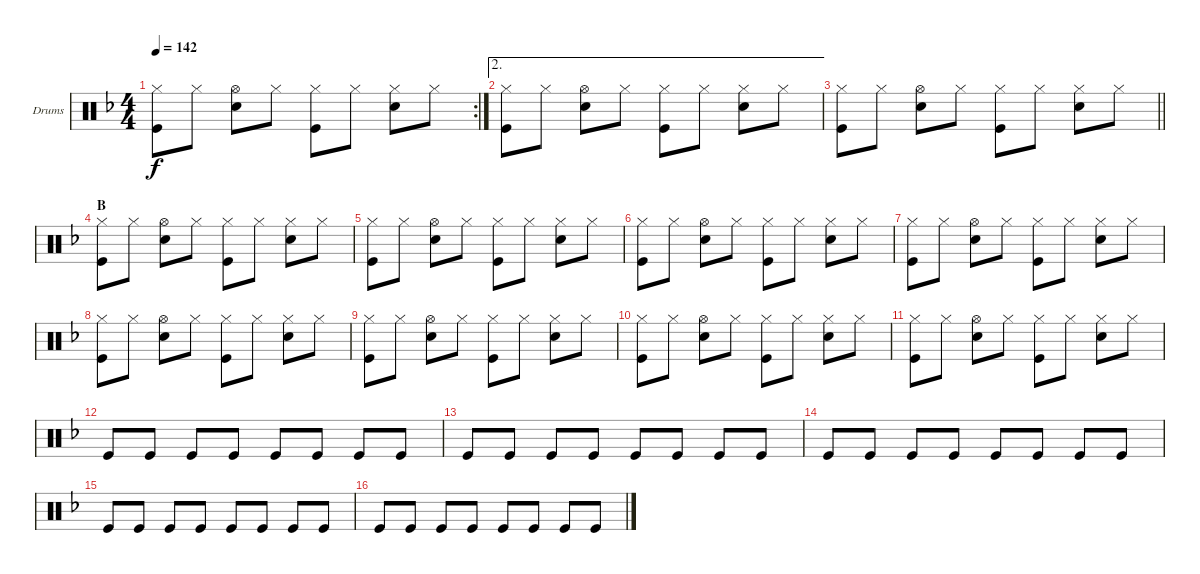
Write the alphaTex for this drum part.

\bracketExtendMode groupsimilarinstruments
\firstSystemTrackNameOrientation horizontal
\otherSystemsTrackNameOrientation horizontal
\track ("Drumkit" "Drums") {instrument percussion}
\staff {score}
\articulation defaults
\rc 2
\ts (4 4)
\tempo 142
\clef neutral
\ks f
("Hi-Hat (closed)" "Kick (hit)").8{dy f} "Hi-Hat (closed)".8 ("Hi-Hat (open)" "Snare (hit) 2").8 "Hi-Hat (closed)".8 ("Hi-Hat (closed)" "Kick (hit)").8 "Hi-Hat (closed)".8 ("Hi-Hat (closed)" "Snare (hit) 2").8 "Hi-Hat (closed)".8 |
\ae 2
("Hi-Hat (closed)" "Kick (hit)").8 "Hi-Hat (closed)".8 ("Hi-Hat (open)" "Snare (hit) 2").8 "Hi-Hat (closed)".8 ("Hi-Hat (closed)" "Kick (hit)").8 "Hi-Hat (closed)".8 ("Hi-Hat (closed)" "Snare (hit) 2").8 "Hi-Hat (closed)".8 |
\barLineRight lightlight
("Hi-Hat (closed)" "Kick (hit)").8 "Hi-Hat (closed)".8 ("Hi-Hat (open)" "Snare (hit) 2").8 "Hi-Hat (closed)".8 ("Hi-Hat (closed)" "Kick (hit)").8 "Hi-Hat (closed)".8 ("Hi-Hat (closed)" "Snare (hit) 2").8 "Hi-Hat (closed)".8 |
\section ("" "B")
("Hi-Hat (closed)" "Kick (hit)").8 "Hi-Hat (closed)".8 ("Hi-Hat (open)" "Snare (hit) 2").8 "Hi-Hat (closed)".8 ("Hi-Hat (closed)" "Kick (hit)").8 "Hi-Hat (closed)".8 ("Hi-Hat (closed)" "Snare (hit) 2").8 "Hi-Hat (closed)".8 |
("Hi-Hat (closed)" "Kick (hit)").8 "Hi-Hat (closed)".8 ("Hi-Hat (open)" "Snare (hit) 2").8 "Hi-Hat (closed)".8 ("Hi-Hat (closed)" "Kick (hit)").8 "Hi-Hat (closed)".8 ("Hi-Hat (closed)" "Snare (hit) 2").8 "Hi-Hat (closed)".8 |
("Hi-Hat (closed)" "Kick (hit)").8 "Hi-Hat (closed)".8 ("Hi-Hat (open)" "Snare (hit) 2").8 "Hi-Hat (closed)".8 ("Hi-Hat (closed)" "Kick (hit)").8 "Hi-Hat (closed)".8 ("Hi-Hat (closed)" "Snare (hit) 2").8 "Hi-Hat (closed)".8 |
("Hi-Hat (closed)" "Kick (hit)").8 "Hi-Hat (closed)".8 ("Hi-Hat (open)" "Snare (hit) 2").8 "Hi-Hat (closed)".8 ("Hi-Hat (closed)" "Kick (hit)").8 "Hi-Hat (closed)".8 ("Hi-Hat (closed)" "Snare (hit) 2").8 "Hi-Hat (closed)".8 |
("Hi-Hat (closed)" "Kick (hit)").8 "Hi-Hat (closed)".8 ("Hi-Hat (open)" "Snare (hit) 2").8 "Hi-Hat (closed)".8 ("Hi-Hat (closed)" "Kick (hit)").8 "Hi-Hat (closed)".8 ("Hi-Hat (closed)" "Snare (hit) 2").8 "Hi-Hat (closed)".8 |
("Hi-Hat (closed)" "Kick (hit)").8 "Hi-Hat (closed)".8 ("Hi-Hat (open)" "Snare (hit) 2").8 "Hi-Hat (closed)".8 ("Hi-Hat (closed)" "Kick (hit)").8 "Hi-Hat (closed)".8 ("Hi-Hat (closed)" "Snare (hit) 2").8 "Hi-Hat (closed)".8 |
("Hi-Hat (closed)" "Kick (hit)").8 "Hi-Hat (closed)".8 ("Hi-Hat (open)" "Snare (hit) 2").8 "Hi-Hat (closed)".8 ("Hi-Hat (closed)" "Kick (hit)").8 "Hi-Hat (closed)".8 ("Hi-Hat (closed)" "Snare (hit) 2").8 "Hi-Hat (closed)".8 |
("Hi-Hat (closed)" "Kick (hit)").8 "Hi-Hat (closed)".8 ("Hi-Hat (open)" "Snare (hit) 2").8 "Hi-Hat (closed)".8 ("Hi-Hat (closed)" "Kick (hit)").8 "Hi-Hat (closed)".8 ("Hi-Hat (closed)" "Snare (hit) 2").8 "Hi-Hat (closed)".8 |
"Kick (hit)".8 "Kick (hit)".8 "Kick (hit)".8 "Kick (hit)".8 "Kick (hit)".8 "Kick (hit)".8 "Kick (hit)".8 "Kick (hit)".8 |
"Kick (hit)".8 "Kick (hit)".8 "Kick (hit)".8 "Kick (hit)".8 "Kick (hit)".8 "Kick (hit)".8 "Kick (hit)".8 "Kick (hit)".8 |
"Kick (hit)".8 "Kick (hit)".8 "Kick (hit)".8 "Kick (hit)".8 "Kick (hit)".8 "Kick (hit)".8 "Kick (hit)".8 "Kick (hit)".8 |
"Kick (hit)".8 "Kick (hit)".8 "Kick (hit)".8 "Kick (hit)".8 "Kick (hit)".8 "Kick (hit)".8 "Kick (hit)".8 "Kick (hit)".8 |
"Kick (hit)".8 "Kick (hit)".8 "Kick (hit)".8 "Kick (hit)".8 "Kick (hit)".8 "Kick (hit)".8 "Kick (hit)".8 "Kick (hit)".8
